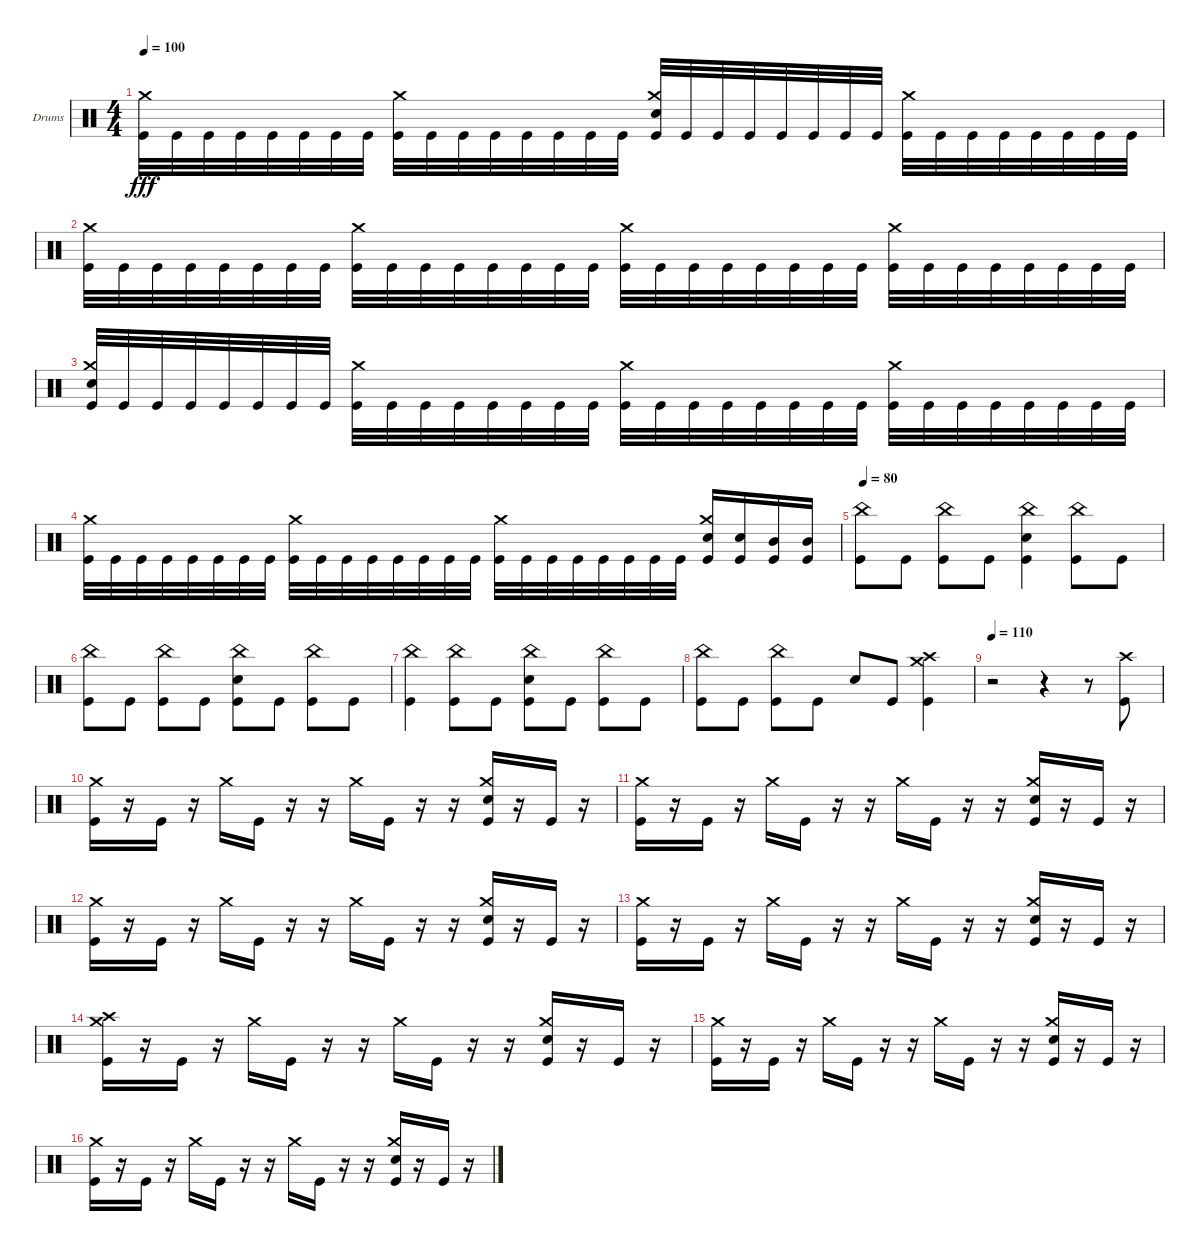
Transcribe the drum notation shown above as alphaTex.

\bracketExtendMode groupsimilarinstruments
\firstSystemTrackNameOrientation horizontal
\otherSystemsTrackNameOrientation horizontal
\track ("Drumkit" "Drums") {instrument percussion}
\staff {score}
\articulation defaults
\ts (4 4)
\tempo 100
\clef neutral
\ks c
("Kick (hit)" "Crash medium (hit)").32{dy fff} "Kick (hit)".32 "Kick (hit)".32 "Kick (hit)".32 "Kick (hit)".32 "Kick (hit)".32 "Kick (hit)".32 "Kick (hit)".32 ("Kick (hit)" "Crash medium (hit)").32 "Kick (hit)".32 "Kick (hit)".32 "Kick (hit)".32 "Kick (hit)".32 "Kick (hit)".32 "Kick (hit)".32 "Kick (hit)".32 ("Kick (hit)" "Crash medium (hit)" "Snare (hit) 2").32 "Kick (hit)".32 "Kick (hit)".32 "Kick (hit)".32 "Kick (hit)".32 "Kick (hit)".32 "Kick (hit)".32 "Kick (hit)".32 ("Kick (hit)" "Crash medium (hit)").32 "Kick (hit)".32 "Kick (hit)".32 "Kick (hit)".32 "Kick (hit)".32 "Kick (hit)".32 "Kick (hit)".32 "Kick (hit)".32 |
("Kick (hit)" "Crash medium (hit)").32 "Kick (hit)".32 "Kick (hit)".32 "Kick (hit)".32 "Kick (hit)".32 "Kick (hit)".32 "Kick (hit)".32 "Kick (hit)".32 ("Kick (hit)" "Crash medium (hit)").32 "Kick (hit)".32 "Kick (hit)".32 "Kick (hit)".32 "Kick (hit)".32 "Kick (hit)".32 "Kick (hit)".32 "Kick (hit)".32 ("Kick (hit)" "Crash medium (hit)").32 "Kick (hit)".32 "Kick (hit)".32 "Kick (hit)".32 "Kick (hit)".32 "Kick (hit)".32 "Kick (hit)".32 "Kick (hit)".32 ("Kick (hit)" "Crash medium (hit)").32 "Kick (hit)".32 "Kick (hit)".32 "Kick (hit)".32 "Kick (hit)".32 "Kick (hit)".32 "Kick (hit)".32 "Kick (hit)".32 |
("Kick (hit)" "Crash medium (hit)" "Snare (hit) 2").32 "Kick (hit)".32 "Kick (hit)".32 "Kick (hit)".32 "Kick (hit)".32 "Kick (hit)".32 "Kick (hit)".32 "Kick (hit)".32 ("Kick (hit)" "Crash medium (hit)").32 "Kick (hit)".32 "Kick (hit)".32 "Kick (hit)".32 "Kick (hit)".32 "Kick (hit)".32 "Kick (hit)".32 "Kick (hit)".32 ("Kick (hit)" "Crash medium (hit)").32 "Kick (hit)".32 "Kick (hit)".32 "Kick (hit)".32 "Kick (hit)".32 "Kick (hit)".32 "Kick (hit)".32 "Kick (hit)".32 ("Kick (hit)" "Crash medium (hit)").32 "Kick (hit)".32 "Kick (hit)".32 "Kick (hit)".32 "Kick (hit)".32 "Kick (hit)".32 "Kick (hit)".32 "Kick (hit)".32 |
("Kick (hit)" "Crash medium (hit)").32 "Kick (hit)".32 "Kick (hit)".32 "Kick (hit)".32 "Kick (hit)".32 "Kick (hit)".32 "Kick (hit)".32 "Kick (hit)".32 ("Kick (hit)" "Crash medium (hit)").32 "Kick (hit)".32 "Kick (hit)".32 "Kick (hit)".32 "Kick (hit)".32 "Kick (hit)".32 "Kick (hit)".32 "Kick (hit)".32 ("Kick (hit)" "Crash medium (hit)").32 "Kick (hit)".32 "Kick (hit)".32 "Kick (hit)".32 "Kick (hit)".32 "Kick (hit)".32 "Kick (hit)".32 "Kick (hit)".32 ("Kick (hit)" "Crash medium (hit)" "Snare (hit) 2").16 ("Kick (hit)" "Snare (hit) 2").16 ("Kick (hit)" "Mid Tom (hit)").16 ("Kick (hit)" "Mid Tom (hit)").16 |
\tempo 80
("Kick (hit)" "China (hit)").8 "Kick (hit)".8 ("Kick (hit)" "China (hit)").8 "Kick (hit)".8 ("Kick (hit)" "China (hit)" "Snare (hit) 2").4 ("Kick (hit)" "China (hit)").8 "Kick (hit)".8 |
("Kick (hit)" "China (hit)").8 "Kick (hit)".8 ("Kick (hit)" "China (hit)").8 "Kick (hit)".8 ("Kick (hit)" "China (hit)" "Snare (hit) 2").8 "Kick (hit)".8 ("Kick (hit)" "China (hit)").8 "Kick (hit)".8 |
("Kick (hit)" "China (hit)").4 ("Kick (hit)" "China (hit)").8 "Kick (hit)".8 ("Kick (hit)" "China (hit)" "Snare (hit) 2").8 "Kick (hit)".8 ("Kick (hit)" "China (hit)").8 "Kick (hit)".8 |
("Kick (hit)" "China (hit)").8 "Kick (hit)".8 ("Kick (hit)" "China (hit)").8 "Kick (hit)".8 "Snare (hit) 2".8 "Kick (hit)".8 ("Kick (hit)" "Crash high (hit)" "Crash medium (hit)").4 |
\tempo 110
r.2 r.4 r.8 ("Crash high (hit)" "Kick (hit)").8 |
("Kick (hit)" "Crash medium (hit)").16 r.16 "Kick (hit)".16 r.16 "Crash medium (hit)".16 "Kick (hit)".16 r.16 r.16 "Crash medium (hit)".16 "Kick (hit)".16 r.16 r.16 ("Kick (hit)" "Crash medium (hit)" "Snare (hit) 2").16 r.16 "Kick (hit)".16 r.16 |
("Crash medium (hit)" "Kick (hit)").16 r.16 "Kick (hit)".16 r.16 "Crash medium (hit)".16 "Kick (hit)".16 r.16 r.16 "Crash medium (hit)".16 "Kick (hit)".16 r.16 r.16 ("Kick (hit)" "Crash medium (hit)" "Snare (hit) 2").16 r.16 "Kick (hit)".16 r.16 |
("Crash medium (hit)" "Kick (hit)").16 r.16 "Kick (hit)".16 r.16 "Crash medium (hit)".16 "Kick (hit)".16 r.16 r.16 "Crash medium (hit)".16 "Kick (hit)".16 r.16 r.16 ("Kick (hit)" "Crash medium (hit)" "Snare (hit) 2").16 r.16 "Kick (hit)".16 r.16 |
("Crash medium (hit)" "Kick (hit)").16 r.16 "Kick (hit)".16 r.16 "Crash medium (hit)".16 "Kick (hit)".16 r.16 r.16 "Crash medium (hit)".16 "Kick (hit)".16 r.16 r.16 ("Kick (hit)" "Crash medium (hit)" "Snare (hit) 2").16 r.16 "Kick (hit)".16 r.16 |
("Crash medium (hit)" "Kick (hit)" "Crash high (hit)").16 r.16 "Kick (hit)".16 r.16 "Crash medium (hit)".16 "Kick (hit)".16 r.16 r.16 "Crash medium (hit)".16 "Kick (hit)".16 r.16 r.16 ("Kick (hit)" "Crash medium (hit)" "Snare (hit) 2").16 r.16 "Kick (hit)".16 r.16 |
("Crash medium (hit)" "Kick (hit)").16 r.16 "Kick (hit)".16 r.16 "Crash medium (hit)".16 "Kick (hit)".16 r.16 r.16 "Crash medium (hit)".16 "Kick (hit)".16 r.16 r.16 ("Kick (hit)" "Crash medium (hit)" "Snare (hit) 2").16 r.16 "Kick (hit)".16 r.16 |
("Crash medium (hit)" "Kick (hit)").16 r.16 "Kick (hit)".16 r.16 "Crash medium (hit)".16 "Kick (hit)".16 r.16 r.16 "Crash medium (hit)".16 "Kick (hit)".16 r.16 r.16 ("Kick (hit)" "Crash medium (hit)" "Snare (hit) 2").16 r.16 "Kick (hit)".16 r.16
